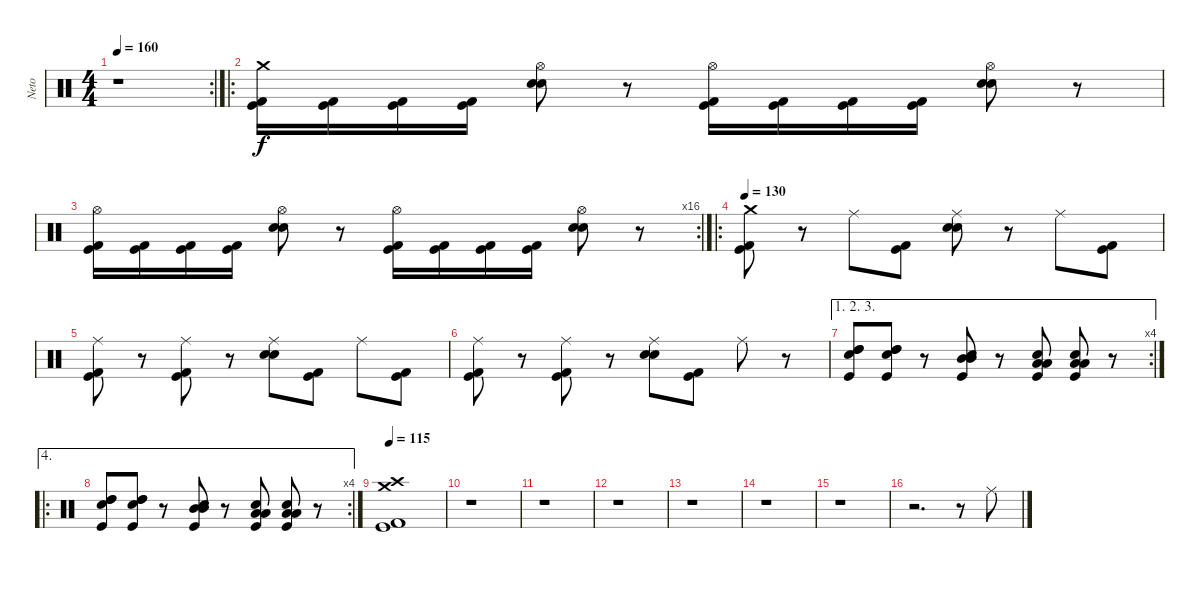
\track ("Neto" "Neto") {instrument percussion}
\staff {score}
\articulation defaults
\rc 2
\ts (4 4)
\tempo 160
\clef neutral
\ks c
r.1{dy f} |
\ro
("Crash medium (hit)" "Kick (hit)" "Kick (hit) 2").16 ("Kick (hit)" "Kick (hit) 2").16 ("Kick (hit)" "Kick (hit) 2").16 ("Kick (hit)" "Kick (hit) 2").16 ("Hi-Hat (open)" "Snare (hit) 2" "Snare (hit) 2").8 r.8 ("Hi-Hat (open)" "Kick (hit)" "Kick (hit) 2").16 ("Kick (hit)" "Kick (hit) 2").16 ("Kick (hit)" "Kick (hit) 2").16 ("Kick (hit)" "Kick (hit) 2").16 ("Hi-Hat (open)" "Snare (hit) 2" "Snare (hit) 2").8 r.8 |
\rc 16
("Hi-Hat (open)" "Kick (hit)" "Kick (hit) 2").16 ("Kick (hit)" "Kick (hit) 2").16 ("Kick (hit)" "Kick (hit) 2").16 ("Kick (hit)" "Kick (hit) 2").16 ("Hi-Hat (open)" "Snare (hit) 2" "Snare (hit) 2").8 r.8 ("Hi-Hat (open)" "Kick (hit)" "Kick (hit) 2").16 ("Kick (hit)" "Kick (hit) 2").16 ("Kick (hit)" "Kick (hit) 2").16 ("Kick (hit)" "Kick (hit) 2").16 ("Hi-Hat (open)" "Snare (hit) 2" "Snare (hit) 2").8 r.8 |
\ro
\tempo 130
("Crash medium (hit)" "Kick (hit)" "Kick (hit) 2").8 r.8 "Ride (middle)".8 ("Kick (hit)" "Kick (hit) 2").8 ("Ride (middle)" "Snare (hit) 2" "Snare (hit) 2").8 r.8 "Ride (middle)".8 ("Kick (hit)" "Kick (hit) 2").8 |
("Ride (middle)" "Kick (hit)" "Kick (hit) 2").8 r.8 ("Ride (middle)" "Kick (hit)" "Kick (hit) 2").8 r.8 ("Ride (middle)" "Snare (hit) 2" "Snare (hit) 2").8 ("Kick (hit)" "Kick (hit) 2").8 "Ride (middle)".8 ("Kick (hit)" "Kick (hit) 2").8 |
("Ride (middle)" "Kick (hit)" "Kick (hit) 2").8 r.8 ("Ride (middle)" "Kick (hit)" "Kick (hit) 2").8 r.8 ("Ride (middle)" "Snare (hit) 2" "Snare (hit) 2").8 ("Kick (hit)" "Kick (hit) 2").8 "Ride (middle)".8 r.8 |
\ae (1 2 3)
\rc 4
("High Tom (hit)" "High Tom (hit)" "Snare (hit) 2" "Kick (hit)").8 ("High Tom (hit)" "High Tom (hit)" "Snare (hit) 2" "Kick (hit)").8 r.8 ("Mid Tom (hit)" "Mid Tom (hit)" "Snare (hit) 2" "Kick (hit)").8 r.8 ("Low Tom (hit)" "Low Tom (hit)" "Snare (hit) 2" "Kick (hit)").8 ("Low Tom (hit)" "Low Tom (hit)" "Snare (hit) 2" "Kick (hit)").8 r.8 |
\ae 4
\ro
\rc 4
("High Tom (hit)" "High Tom (hit)" "Snare (hit) 2" "Kick (hit)").8 ("High Tom (hit)" "High Tom (hit)" "Snare (hit) 2" "Kick (hit)").8 r.8 ("Mid Tom (hit)" "Mid Tom (hit)" "Snare (hit) 2" "Kick (hit)").8 r.8 ("Low Tom (hit)" "Low Tom (hit)" "Snare (hit) 2" "Kick (hit)").8 ("Low Tom (hit)" "Low Tom (hit)" "Snare (hit) 2" "Kick (hit)").8 r.8 |
\tempo 115
("Crash high (hit)" "Crash medium (hit)" "Kick (hit)" "Kick (hit) 2").1 |
r.1 |
r.1 |
r.1 |
r.1 |
r.1 |
r.1 |
r.2{d} r.8 "Ride (middle)".8
